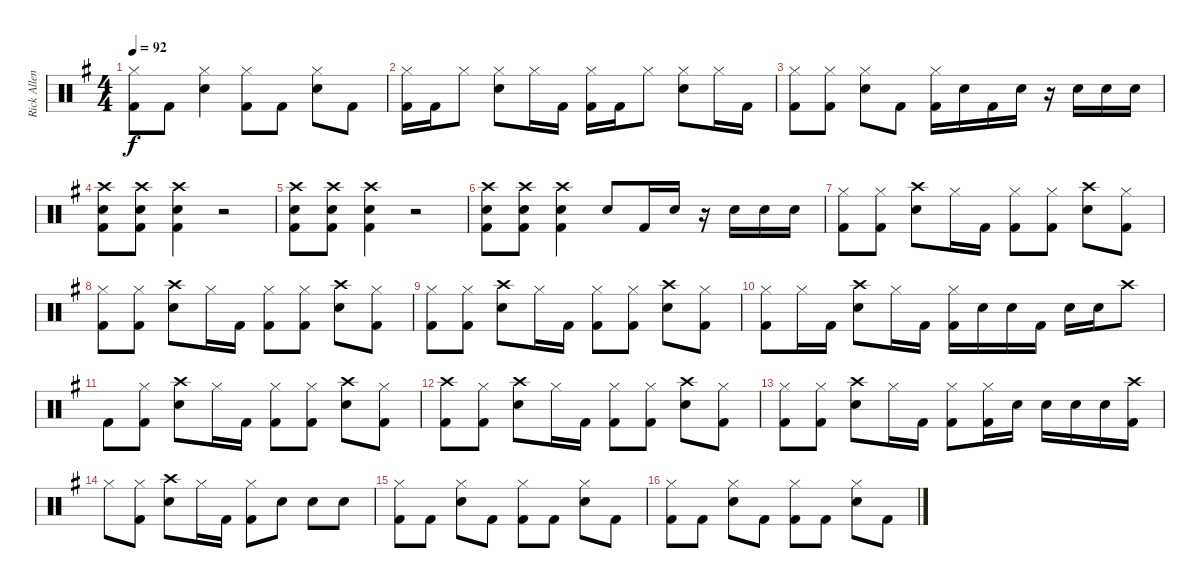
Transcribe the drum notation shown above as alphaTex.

\track ("Rick Allen" "Rick Allen") {instrument percussion}
\staff {score}
\articulation defaults
\ts (4 4)
\tempo 92
\clef neutral
\ks eminor
("Hi-Hat (closed)" "Kick (hit) 2").8{dy f} "Kick (hit) 2".8 ("Hi-Hat (closed)" "Electric Snare (hit)").4 ("Hi-Hat (closed)" "Kick (hit) 2").8 "Kick (hit) 2".8 ("Hi-Hat (closed)" "Electric Snare (hit)").8 "Kick (hit) 2".8 |
("Hi-Hat (closed)" "Kick (hit) 2").16 "Kick (hit) 2".16 "Hi-Hat (closed)".8 ("Hi-Hat (closed)" "Electric Snare (hit)").8 "Hi-Hat (closed)".16 "Kick (hit) 2".16 ("Hi-Hat (closed)" "Kick (hit) 2").16 "Kick (hit) 2".16 "Hi-Hat (closed)".8 ("Hi-Hat (closed)" "Electric Snare (hit)").8 "Hi-Hat (closed)".16 "Kick (hit) 2".16 |
("Hi-Hat (closed)" "Kick (hit) 2").8 ("Hi-Hat (closed)" "Kick (hit) 2").8 ("Hi-Hat (closed)" "Electric Snare (hit)").8 "Kick (hit) 2".8 ("Hi-Hat (closed)" "Kick (hit) 2").16 "Electric Snare (hit)".16 "Kick (hit) 2".16 "Electric Snare (hit)".16 r.16 "Electric Snare (hit)".16 "Electric Snare (hit)".16 "Electric Snare (hit)".16 |
("Crash high (hit)" "Electric Snare (hit)" "Kick (hit) 2").8 ("Crash high (hit)" "Electric Snare (hit)" "Kick (hit) 2").8 ("Crash high (hit)" "Electric Snare (hit)" "Kick (hit) 2").4 r.2 |
("Crash high (hit)" "Electric Snare (hit)" "Kick (hit) 2").8 ("Crash high (hit)" "Electric Snare (hit)" "Kick (hit) 2").8 ("Crash high (hit)" "Electric Snare (hit)" "Kick (hit) 2").4 r.2 |
("Crash high (hit)" "Electric Snare (hit)" "Kick (hit) 2").8 ("Crash high (hit)" "Electric Snare (hit)" "Kick (hit) 2").8 ("Crash high (hit)" "Electric Snare (hit)" "Kick (hit) 2").4 "Electric Snare (hit)".8 "Kick (hit) 2".16 "Electric Snare (hit)".16 r.16 "Electric Snare (hit)".16 "Electric Snare (hit)".16 "Electric Snare (hit)".16 |
("Hi-Hat (closed)" "Kick (hit) 2").8 ("Hi-Hat (closed)" "Kick (hit) 2").8 ("Crash high (hit)" "Electric Snare (hit)").8 "Hi-Hat (closed)".16 "Kick (hit) 2".16 ("Hi-Hat (closed)" "Kick (hit) 2").8 ("Hi-Hat (closed)" "Kick (hit) 2").8 ("Crash high (hit)" "Electric Snare (hit)").8 ("Hi-Hat (closed)" "Kick (hit) 2").8 |
("Hi-Hat (closed)" "Kick (hit) 2").8 ("Hi-Hat (closed)" "Kick (hit) 2").8 ("Crash high (hit)" "Electric Snare (hit)").8 "Hi-Hat (closed)".16 "Kick (hit) 2".16 ("Hi-Hat (closed)" "Kick (hit) 2").8 ("Hi-Hat (closed)" "Kick (hit) 2").8 ("Crash high (hit)" "Electric Snare (hit)").8 ("Hi-Hat (closed)" "Kick (hit) 2").8 |
("Hi-Hat (closed)" "Kick (hit) 2").8 ("Hi-Hat (closed)" "Kick (hit) 2").8 ("Crash high (hit)" "Electric Snare (hit)").8 "Hi-Hat (closed)".16 "Kick (hit) 2".16 ("Hi-Hat (closed)" "Kick (hit) 2").8 ("Hi-Hat (closed)" "Kick (hit) 2").8 ("Crash high (hit)" "Electric Snare (hit)").8 ("Hi-Hat (closed)" "Kick (hit) 2").8 |
("Hi-Hat (closed)" "Kick (hit) 2").8 "Hi-Hat (closed)".16 "Kick (hit) 2".16 ("Crash high (hit)" "Electric Snare (hit)").8 "Hi-Hat (closed)".16 "Kick (hit) 2".16 ("Hi-Hat (closed)" "Kick (hit) 2").16 "Electric Snare (hit)".16 "Electric Snare (hit)".16 "Kick (hit) 2".16 "Electric Snare (hit)".16 "Electric Snare (hit)".16 "Crash high (hit)".8 |
"Kick (hit) 2".8 ("Hi-Hat (closed)" "Kick (hit) 2").8 ("Crash high (hit)" "Electric Snare (hit)").8 "Hi-Hat (closed)".16 "Kick (hit) 2".16 ("Hi-Hat (closed)" "Kick (hit) 2").8 ("Hi-Hat (closed)" "Kick (hit) 2").8 ("Crash high (hit)" "Electric Snare (hit)").8 ("Hi-Hat (closed)" "Kick (hit) 2").8 |
("Crash high (hit)" "Kick (hit) 2").8 ("Hi-Hat (closed)" "Kick (hit) 2").8 ("Crash high (hit)" "Electric Snare (hit)").8 "Hi-Hat (closed)".16 "Kick (hit) 2".16 ("Hi-Hat (closed)" "Kick (hit) 2").8 ("Hi-Hat (closed)" "Kick (hit) 2").8 ("Crash high (hit)" "Electric Snare (hit)").8 ("Hi-Hat (closed)" "Kick (hit) 2").8 |
("Hi-Hat (closed)" "Kick (hit) 2").8 ("Hi-Hat (closed)" "Kick (hit) 2").8 ("Crash high (hit)" "Electric Snare (hit)").8 "Hi-Hat (closed)".16 "Kick (hit) 2".16 ("Hi-Hat (closed)" "Kick (hit) 2").8 ("Hi-Hat (closed)" "Kick (hit) 2").16 "Electric Snare (hit)".16 "Electric Snare (hit)".16 "Electric Snare (hit)".16 "Electric Snare (hit)".16 ("Crash high (hit)" "Kick (hit) 2").16 |
"Hi-Hat (closed)".8 ("Hi-Hat (closed)" "Kick (hit) 2").8 ("Crash high (hit)" "Electric Snare (hit)").8 "Hi-Hat (closed)".16 "Kick (hit) 2".16 ("Hi-Hat (closed)" "Kick (hit) 2").8 "Electric Snare (hit)".8 "Electric Snare (hit)".8 "Electric Snare (hit)".8 |
("Hi-Hat (closed)" "Kick (hit) 2").8 "Kick (hit) 2".8 ("Hi-Hat (closed)" "Electric Snare (hit)").8 "Kick (hit) 2".8 ("Hi-Hat (closed)" "Kick (hit) 2").8 "Kick (hit) 2".8 ("Hi-Hat (closed)" "Electric Snare (hit)").8 "Kick (hit) 2".8 |
("Hi-Hat (closed)" "Kick (hit) 2").8 "Kick (hit) 2".8 ("Hi-Hat (closed)" "Electric Snare (hit)").8 "Kick (hit) 2".8 ("Hi-Hat (closed)" "Kick (hit) 2").8 "Kick (hit) 2".8 ("Hi-Hat (closed)" "Electric Snare (hit)").8 "Kick (hit) 2".8
